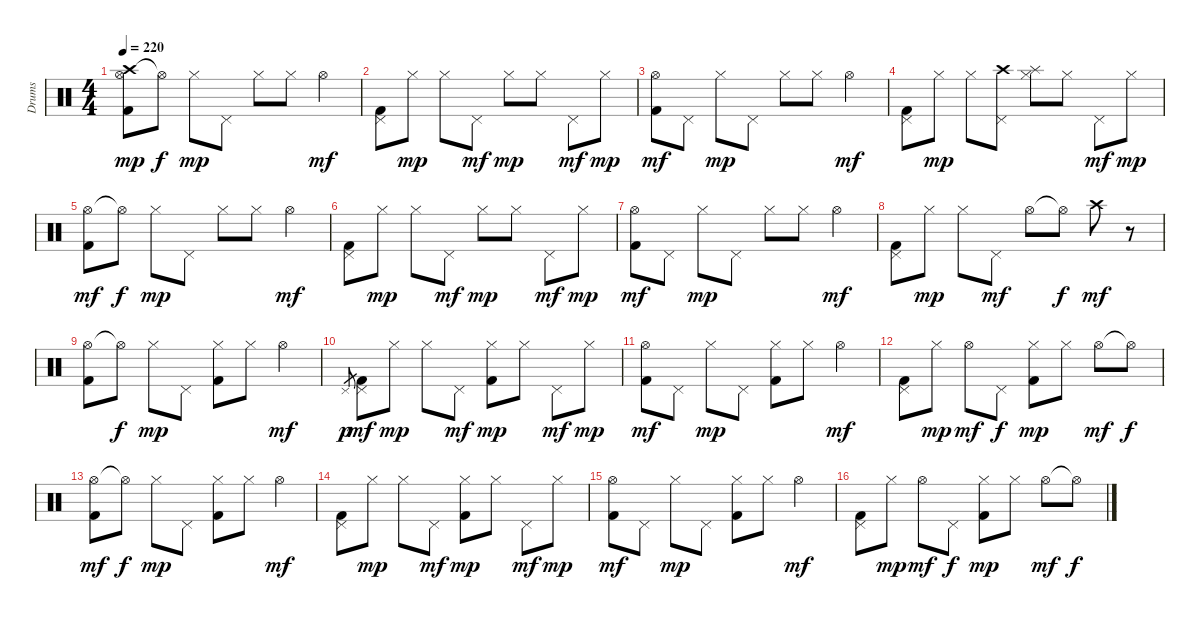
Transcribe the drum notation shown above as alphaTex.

\bracketExtendMode groupsimilarinstruments
\otherSystemsTrackNameOrientation horizontal
\track ("Drumkit" "Drums") {instrument percussion}
\staff {score}
\articulation defaults
\ts (4 4)
\tempo 220
\clef neutral
\ks c
("Crash high (hit)" "Hi-Hat (open)" "Kick (hit) 2").8{dy mp beam Down} "Hi-Hat (open)"{t}.8{dy f beam Down} "Hi-Hat (closed)".8{dy mp beam Down} "Pedal Hi-Hat (hit)".8{beam Down} "Hi-Hat (closed)".8{beam Down} "Hi-Hat (closed)".8{beam Down} "Hi-Hat (open)".4{dy mf beam Down} |
("Pedal Hi-Hat (hit)" "Kick (hit) 2").8{beam Down} "Hi-Hat (closed)".8{dy mp beam Down} "Hi-Hat (closed)".8{beam Down} "Pedal Hi-Hat (hit)".8{dy mf beam Down} "Hi-Hat (closed)".8{dy mp beam Down} "Hi-Hat (closed)".8{beam Down} "Pedal Hi-Hat (hit)".8{dy mf beam Down} "Hi-Hat (closed)".8{dy mp beam Down} |
("Hi-Hat (open)" "Kick (hit) 2").8{dy mf beam Down} "Pedal Hi-Hat (hit)".8{beam Down} "Hi-Hat (closed)".8{dy mp beam Down} "Pedal Hi-Hat (hit)".8{beam Down} "Hi-Hat (closed)".8{beam Down} "Hi-Hat (closed)".8{beam Down} "Hi-Hat (open)".4{dy mf beam Down} |
("Pedal Hi-Hat (hit)" "Kick (hit) 2").8{beam Down} "Hi-Hat (closed)".8{dy mp beam Down} "Hi-Hat (closed)".8{beam Down} ("Crash high (hit)" "Pedal Hi-Hat (hit)").8{beam Down} ("Splash (hit)" "Hi-Hat (closed)").8{beam Down} "Hi-Hat (closed)".8{beam Down} "Pedal Hi-Hat (hit)".8{dy mf beam Down} "Hi-Hat (closed)".8{dy mp beam Down} |
("Hi-Hat (open)" "Kick (hit) 2").8{dy mf beam Down} "Hi-Hat (open)"{t}.8{dy f beam Down} "Hi-Hat (closed)".8{dy mp beam Down} "Pedal Hi-Hat (hit)".8{beam Down} "Hi-Hat (closed)".8{beam Down} "Hi-Hat (closed)".8{beam Down} "Hi-Hat (open)".4{dy mf beam Down} |
("Pedal Hi-Hat (hit)" "Kick (hit) 2").8{beam Down} "Hi-Hat (closed)".8{dy mp beam Down} "Hi-Hat (closed)".8{beam Down} "Pedal Hi-Hat (hit)".8{dy mf beam Down} "Hi-Hat (closed)".8{dy mp beam Down} "Hi-Hat (closed)".8{beam Down} "Pedal Hi-Hat (hit)".8{dy mf beam Down} "Hi-Hat (closed)".8{dy mp beam Down} |
("Hi-Hat (open)" "Kick (hit) 2").8{dy mf beam Down} "Pedal Hi-Hat (hit)".8{beam Down} "Hi-Hat (closed)".8{dy mp beam Down} "Pedal Hi-Hat (hit)".8{beam Down} "Hi-Hat (closed)".8{beam Down} "Hi-Hat (closed)".8{beam Down} "Hi-Hat (open)".4{dy mf beam Down} |
("Pedal Hi-Hat (hit)" "Kick (hit) 2").8{beam Down} "Hi-Hat (closed)".8{dy mp beam Down} "Hi-Hat (closed)".8{beam Down} "Pedal Hi-Hat (hit)".8{dy mf beam Down} "Hi-Hat (open)".8{beam Down} "Hi-Hat (open)"{t}.8{dy f beam Down} "Crash high (hit)".8{dy mf beam Down} r.8{beam Down} |
("Hi-Hat (open)" "Kick (hit) 2").8{beam Down} "Hi-Hat (open)"{t}.8{dy f beam Down} "Hi-Hat (closed)".8{dy mp beam Down} "Pedal Hi-Hat (hit)".8{beam Down} ("Hi-Hat (closed)" "Kick (hit) 2").8{beam Down} "Hi-Hat (closed)".8{beam Down} "Hi-Hat (open)".4{dy mf beam Down} |
"Pedal Hi-Hat (hit)".8{gr dy p beam Up} ("Pedal Hi-Hat (hit)" "Kick (hit) 2").8{dy mf beam Down} "Hi-Hat (closed)".8{dy mp beam Down} "Hi-Hat (closed)".8{beam Down} "Pedal Hi-Hat (hit)".8{dy mf beam Down} ("Hi-Hat (closed)" "Kick (hit) 2").8{dy mp beam Down} "Hi-Hat (closed)".8{beam Down} "Pedal Hi-Hat (hit)".8{dy mf beam Down} "Hi-Hat (closed)".8{dy mp beam Down} |
("Hi-Hat (open)" "Kick (hit) 2").8{dy mf beam Down} "Pedal Hi-Hat (hit)".8{beam Down} "Hi-Hat (closed)".8{dy mp beam Down} "Pedal Hi-Hat (hit)".8{beam Down} ("Hi-Hat (closed)" "Kick (hit) 2").8{beam Down} "Hi-Hat (closed)".8{beam Down} "Hi-Hat (open)".4{dy mf beam Down} |
("Pedal Hi-Hat (hit)" "Kick (hit) 2").8{beam Down} "Hi-Hat (closed)".8{dy mp beam Down} "Hi-Hat (open)".8{dy mf beam Down} "Pedal Hi-Hat (hit)".8{dy f beam Down} ("Hi-Hat (closed)" "Kick (hit) 2").8{dy mp beam Down} "Hi-Hat (closed)".8{beam Down} "Hi-Hat (open)".8{dy mf beam Down} "Hi-Hat (open)"{t}.8{dy f beam Down} |
("Hi-Hat (open)" "Kick (hit) 2").8{dy mf beam Down} "Hi-Hat (open)"{t}.8{dy f beam Down} "Hi-Hat (closed)".8{dy mp beam Down} "Pedal Hi-Hat (hit)".8{beam Down} ("Hi-Hat (closed)" "Kick (hit) 2").8{beam Down} "Hi-Hat (closed)".8{beam Down} "Hi-Hat (open)".4{dy mf beam Down} |
("Pedal Hi-Hat (hit)" "Kick (hit) 2").8{beam Down} "Hi-Hat (closed)".8{dy mp beam Down} "Hi-Hat (closed)".8{beam Down} "Pedal Hi-Hat (hit)".8{dy mf beam Down} ("Hi-Hat (closed)" "Kick (hit) 2").8{dy mp beam Down} "Hi-Hat (closed)".8{beam Down} "Pedal Hi-Hat (hit)".8{dy mf beam Down} "Hi-Hat (closed)".8{dy mp beam Down} |
("Hi-Hat (open)" "Kick (hit) 2").8{dy mf beam Down} "Pedal Hi-Hat (hit)".8{beam Down} "Hi-Hat (closed)".8{dy mp beam Down} "Pedal Hi-Hat (hit)".8{beam Down} ("Hi-Hat (closed)" "Kick (hit) 2").8{beam Down} "Hi-Hat (closed)".8{beam Down} "Hi-Hat (open)".4{dy mf beam Down} |
("Pedal Hi-Hat (hit)" "Kick (hit) 2").8{beam Down} "Hi-Hat (closed)".8{dy mp beam Down} "Hi-Hat (open)".8{dy mf beam Down} "Pedal Hi-Hat (hit)".8{dy f beam Down} ("Hi-Hat (closed)" "Kick (hit) 2").8{dy mp beam Down} "Hi-Hat (closed)".8{beam Down} "Hi-Hat (open)".8{dy mf beam Down} "Hi-Hat (open)"{t}.8{dy f beam Down}
